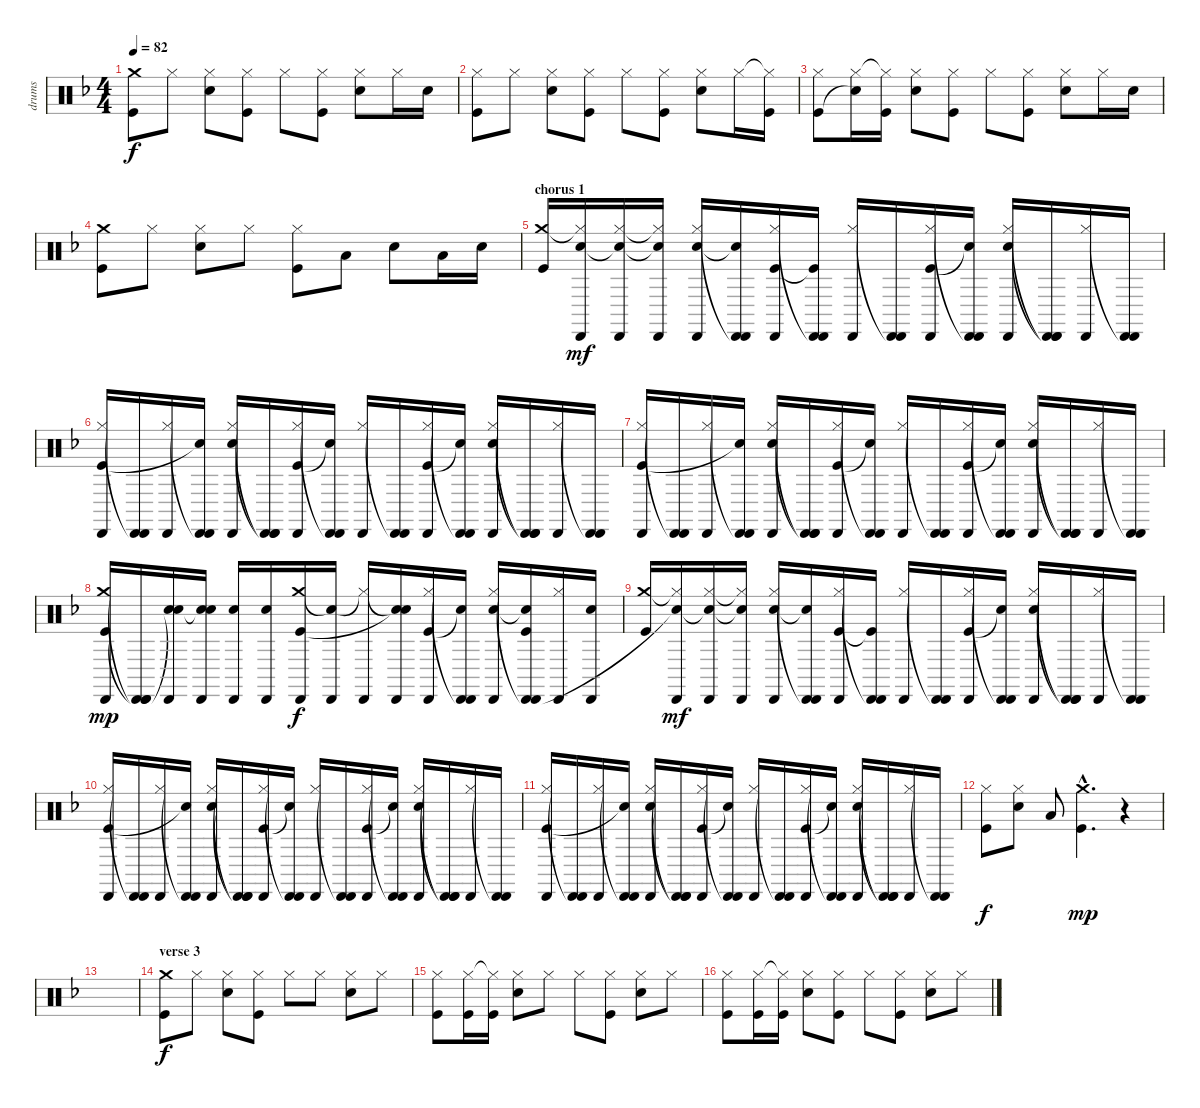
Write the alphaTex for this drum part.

\track ("drums" "drums") {instrument percussion}
\staff {score}
\articulation defaults
\ts (4 4)
\tempo 82
\clef neutral
\ks f
("Crash medium (hit)" "Kick (hit)").8{dy f} "Hi-Hat (closed)".8 ("Hi-Hat (closed)" "Snare (hit) 2").8 ("Hi-Hat (closed)" "Kick (hit)").8 "Hi-Hat (closed)".8 ("Hi-Hat (closed)" "Kick (hit)").8 ("Hi-Hat (closed)" "Snare (hit) 2").8 "Hi-Hat (closed)".16 "Snare (hit) 2".16 |
("Hi-Hat (closed)" "Kick (hit)").8 "Hi-Hat (closed)".8 ("Hi-Hat (closed)" "Snare (hit) 2").8 ("Hi-Hat (closed)" "Kick (hit)").8 "Hi-Hat (closed)".8 ("Hi-Hat (closed)" "Kick (hit)").8 ("Hi-Hat (closed)" "Snare (hit) 2").8 "Hi-Hat (closed)".16 ("Hi-Hat (closed)"{t} "Kick (hit)").16 |
("Hi-Hat (closed)" "Kick (hit)").8 ("Hi-Hat (closed)" "Snare (hit)"{t}).16 ("Hi-Hat (closed)"{t} "Kick (hit)").16 ("Hi-Hat (closed)" "Snare (hit) 2").8 ("Hi-Hat (closed)" "Kick (hit)").8 "Hi-Hat (closed)".8 ("Hi-Hat (closed)" "Kick (hit)").8 ("Hi-Hat (closed)" "Snare (hit) 2").8 "Hi-Hat (closed)".16 "Snare (hit) 2".16 |
("Crash medium (hit)" "Kick (hit)").8 "Hi-Hat (closed)".8 ("Hi-Hat (closed)" "Snare (hit) 2").8 "Hi-Hat (closed)".8 ("Hi-Hat (closed)" "Kick (hit)").8 "Low Tom (hit)".8 "Snare (hit) 2".8 "Low Tom (hit)".16 "Snare (hit) 2".16 |
\section ("" "chorus 1")
("Crash medium (hit)" "Kick (hit)").16{volume 15} ("Hi-Hat (closed)"{t} "Cabasa (hit)" "Snare (hit)").16{dy mf} ("Hi-Hat (closed)" "Cabasa (hit)" "Snare (hit)"{t}).16 ("Hi-Hat (closed)"{t} "Cabasa (hit)" "Snare (hit)"{t}).16 ("Hi-Hat (closed)" "Snare (hit) 2" "Cabasa (hit)").16 ("Cabasa (hit)"{t} "Snare (hit)"{t} "Cabasa (hit)").16 ("Hi-Hat (closed)" "Cabasa (hit)" "Kick (hit)").16 ("Cabasa (hit)"{t} "Cabasa (hit)" "Kick (hit)"{t}).16 ("Hi-Hat (closed)" "Cabasa (hit)").16 ("Cabasa (hit)"{t} "Cabasa (hit)").16 ("Hi-Hat (closed)" "Cabasa (hit)" "Kick (hit)").16 ("Cabasa (hit)"{t} "Cabasa (hit)" "Snare (hit)"{t}).16 ("Hi-Hat (closed)" "Snare (hit) 2" "Cabasa (hit)").16 ("Cabasa (hit)"{t} "Cabasa (hit)"{t} "Cabasa (hit)").16 ("Hi-Hat (closed)" "Cabasa (hit)").16 ("Cabasa (hit)"{t} "Cabasa (hit)").16 |
("Hi-Hat (closed)" "Cabasa (hit)" "Kick (hit)").16 ("Cabasa (hit)"{t} "Cabasa (hit)").16 ("Hi-Hat (closed)" "Cabasa (hit)").16 ("Cabasa (hit)"{t} "Cabasa (hit)" "Snare (hit)"{t}).16 ("Hi-Hat (closed)" "Snare (hit) 2" "Cabasa (hit)").16 ("Cabasa (hit)"{t} "Cabasa (hit)"{t} "Cabasa (hit)").16 ("Hi-Hat (closed)" "Cabasa (hit)" "Kick (hit)").16 ("Cabasa (hit)"{t} "Cabasa (hit)" "Snare (hit)"{t}).16 ("Hi-Hat (closed)" "Cabasa (hit)").16 ("Cabasa (hit)"{t} "Cabasa (hit)").16 ("Hi-Hat (closed)" "Cabasa (hit)" "Kick (hit)").16 ("Cabasa (hit)"{t} "Cabasa (hit)" "Snare (hit)"{t}).16 ("Hi-Hat (closed)" "Snare (hit) 2" "Cabasa (hit)").16 ("Cabasa (hit)"{t} "Cabasa (hit)"{t} "Cabasa (hit)").16 ("Hi-Hat (closed)" "Cabasa (hit)").16 ("Cabasa (hit)"{t} "Cabasa (hit)").16 |
("Hi-Hat (closed)" "Cabasa (hit)" "Kick (hit)").16 ("Cabasa (hit)"{t} "Cabasa (hit)").16 ("Hi-Hat (closed)" "Cabasa (hit)").16 ("Cabasa (hit)"{t} "Cabasa (hit)" "Snare (hit)"{t}).16 ("Hi-Hat (closed)" "Snare (hit) 2" "Cabasa (hit)").16 ("Cabasa (hit)"{t} "Cabasa (hit)"{t} "Cabasa (hit)").16 ("Hi-Hat (closed)" "Cabasa (hit)" "Kick (hit)").16 ("Cabasa (hit)"{t} "Cabasa (hit)" "Snare (hit)"{t}).16 ("Hi-Hat (closed)" "Cabasa (hit)").16 ("Cabasa (hit)"{t} "Cabasa (hit)").16 ("Hi-Hat (closed)" "Cabasa (hit)" "Kick (hit)").16 ("Cabasa (hit)"{t} "Cabasa (hit)" "Snare (hit)"{t}).16 ("Hi-Hat (closed)" "Snare (hit) 2" "Cabasa (hit)").16 ("Cabasa (hit)"{t} "Cabasa (hit)"{t} "Cabasa (hit)").16 ("Hi-Hat (closed)" "Cabasa (hit)").16 ("Cabasa (hit)"{t} "Cabasa (hit)").16 |
("Crash medium (hit)" "Cabasa (hit)" "Kick (hit)").16{dy mp} ("Cabasa (hit)"{t} "Cabasa (hit)" "Cabasa (hit)"{t}).16 ("Snare (hit) 2" "Cabasa (hit)" "Snare (hit)"{t}).16 ("Snare (hit) 2" "Cabasa (hit)" "Snare (hit)"{t}).16 ("Snare (hit) 2" "Cabasa (hit)").16 ("Snare (hit) 2" "Cabasa (hit)").16 ("Crash medium (hit)" "Cabasa (hit)" "Kick (hit)").16{dy f} ("Snare (hit)"{t} "Cabasa (hit)").16 ("Hi-Hat (closed)"{t} "Cabasa (hit)").16 ("Snare (hit)"{t} "Cabasa (hit)" "Snare (hit)"{t}).16 ("Hi-Hat (closed)" "Cabasa (hit)" "Kick (hit)").16 ("Cabasa (hit)"{t} "Cabasa (hit)" "Snare (hit)"{t}).16 ("Hi-Hat (closed)" "Snare (hit) 2" "Cabasa (hit)").16 ("Cabasa (hit)"{t} "Snare (hit)"{t} "Cabasa (hit)" "Kick (hit)").16 ("Hi-Hat (closed)" "Cabasa (hit)").16 ("Snare (hit) 2" "Cabasa (hit)").16 |
("Crash medium (hit)" "Kick (hit)").16 ("Hi-Hat (closed)"{t} "Cabasa (hit)" "Snare (hit)"{t}).16{dy mf} ("Hi-Hat (closed)" "Cabasa (hit)" "Snare (hit)"{t}).16 ("Hi-Hat (closed)"{t} "Cabasa (hit)" "Snare (hit)"{t}).16 ("Hi-Hat (closed)" "Snare (hit) 2" "Cabasa (hit)").16 ("Cabasa (hit)"{t} "Snare (hit)"{t} "Cabasa (hit)").16 ("Hi-Hat (closed)" "Cabasa (hit)" "Kick (hit)").16 ("Cabasa (hit)"{t} "Cabasa (hit)" "Kick (hit)"{t}).16 ("Hi-Hat (closed)" "Cabasa (hit)").16 ("Cabasa (hit)"{t} "Cabasa (hit)").16 ("Hi-Hat (closed)" "Cabasa (hit)" "Kick (hit)").16 ("Cabasa (hit)"{t} "Cabasa (hit)" "Snare (hit)"{t}).16 ("Hi-Hat (closed)" "Snare (hit) 2" "Cabasa (hit)").16 ("Cabasa (hit)"{t} "Cabasa (hit)"{t} "Cabasa (hit)").16 ("Hi-Hat (closed)" "Cabasa (hit)").16 ("Cabasa (hit)"{t} "Cabasa (hit)").16 |
("Hi-Hat (closed)" "Cabasa (hit)" "Kick (hit)").16 ("Cabasa (hit)"{t} "Cabasa (hit)").16 ("Hi-Hat (closed)" "Cabasa (hit)").16 ("Cabasa (hit)"{t} "Cabasa (hit)" "Snare (hit)"{t}).16 ("Hi-Hat (closed)" "Snare (hit) 2" "Cabasa (hit)").16 ("Cabasa (hit)"{t} "Cabasa (hit)"{t} "Cabasa (hit)").16 ("Hi-Hat (closed)" "Cabasa (hit)" "Kick (hit)").16 ("Cabasa (hit)"{t} "Cabasa (hit)" "Snare (hit)"{t}).16 ("Hi-Hat (closed)" "Cabasa (hit)").16 ("Cabasa (hit)"{t} "Cabasa (hit)").16 ("Hi-Hat (closed)" "Cabasa (hit)" "Kick (hit)").16 ("Cabasa (hit)"{t} "Cabasa (hit)" "Snare (hit)"{t}).16 ("Hi-Hat (closed)" "Snare (hit) 2" "Cabasa (hit)").16 ("Cabasa (hit)"{t} "Cabasa (hit)"{t} "Cabasa (hit)").16 ("Hi-Hat (closed)" "Cabasa (hit)").16 ("Cabasa (hit)"{t} "Cabasa (hit)").16 |
("Hi-Hat (closed)" "Cabasa (hit)" "Kick (hit)").16 ("Cabasa (hit)"{t} "Cabasa (hit)").16 ("Hi-Hat (closed)" "Cabasa (hit)").16 ("Cabasa (hit)"{t} "Cabasa (hit)" "Snare (hit)"{t}).16 ("Hi-Hat (closed)" "Snare (hit) 2" "Cabasa (hit)").16 ("Cabasa (hit)"{t} "Cabasa (hit)"{t} "Cabasa (hit)").16 ("Hi-Hat (closed)" "Cabasa (hit)" "Kick (hit)").16 ("Cabasa (hit)"{t} "Cabasa (hit)" "Snare (hit)"{t}).16 ("Hi-Hat (closed)" "Cabasa (hit)").16 ("Cabasa (hit)"{t} "Cabasa (hit)").16 ("Hi-Hat (closed)" "Cabasa (hit)" "Kick (hit)").16 ("Cabasa (hit)"{t} "Cabasa (hit)" "Snare (hit)"{t}).16 ("Hi-Hat (closed)" "Snare (hit) 2" "Cabasa (hit)").16 ("Cabasa (hit)"{t} "Cabasa (hit)"{t} "Cabasa (hit)").16 ("Hi-Hat (closed)" "Cabasa (hit)").16 ("Cabasa (hit)"{t} "Cabasa (hit)").16 |
("Hi-Hat (closed)" "Kick (hit)").8{dy f} ("Hi-Hat (closed)" "Snare (hit) 2").8 "Low Tom (hit)".8 ("Crash medium (hit)"{hac} "Kick (hit)"{hac}).4{d dy mp} r.4 |
|
\section ("" "verse 3")
("Crash medium (hit)" "Kick (hit)").8{dy f volume 13} "Hi-Hat (closed)".8 ("Hi-Hat (closed)" "Snare (hit) 2").8 ("Hi-Hat (closed)" "Kick (hit)").8 "Hi-Hat (closed)".8 "Hi-Hat (closed)".8 ("Hi-Hat (closed)" "Snare (hit) 2").8 "Hi-Hat (closed)".8 |
("Hi-Hat (closed)" "Kick (hit)").8 ("Hi-Hat (closed)" "Kick (hit)").16 ("Hi-Hat (closed)"{t} "Kick (hit)").16 ("Hi-Hat (closed)" "Snare (hit) 2").8 "Hi-Hat (closed)".8 "Hi-Hat (closed)".8 ("Hi-Hat (closed)" "Kick (hit)").8 ("Hi-Hat (closed)" "Snare (hit) 2").8 "Hi-Hat (closed)".8 |
("Hi-Hat (closed)" "Kick (hit)").8 ("Hi-Hat (closed)" "Kick (hit)").16 ("Hi-Hat (closed)"{t} "Kick (hit)").16 ("Hi-Hat (closed)" "Snare (hit) 2").8 ("Hi-Hat (closed)" "Kick (hit)").8 "Hi-Hat (closed)".8 ("Hi-Hat (closed)" "Kick (hit)").8 ("Hi-Hat (closed)" "Snare (hit) 2").8 "Hi-Hat (closed)".8
